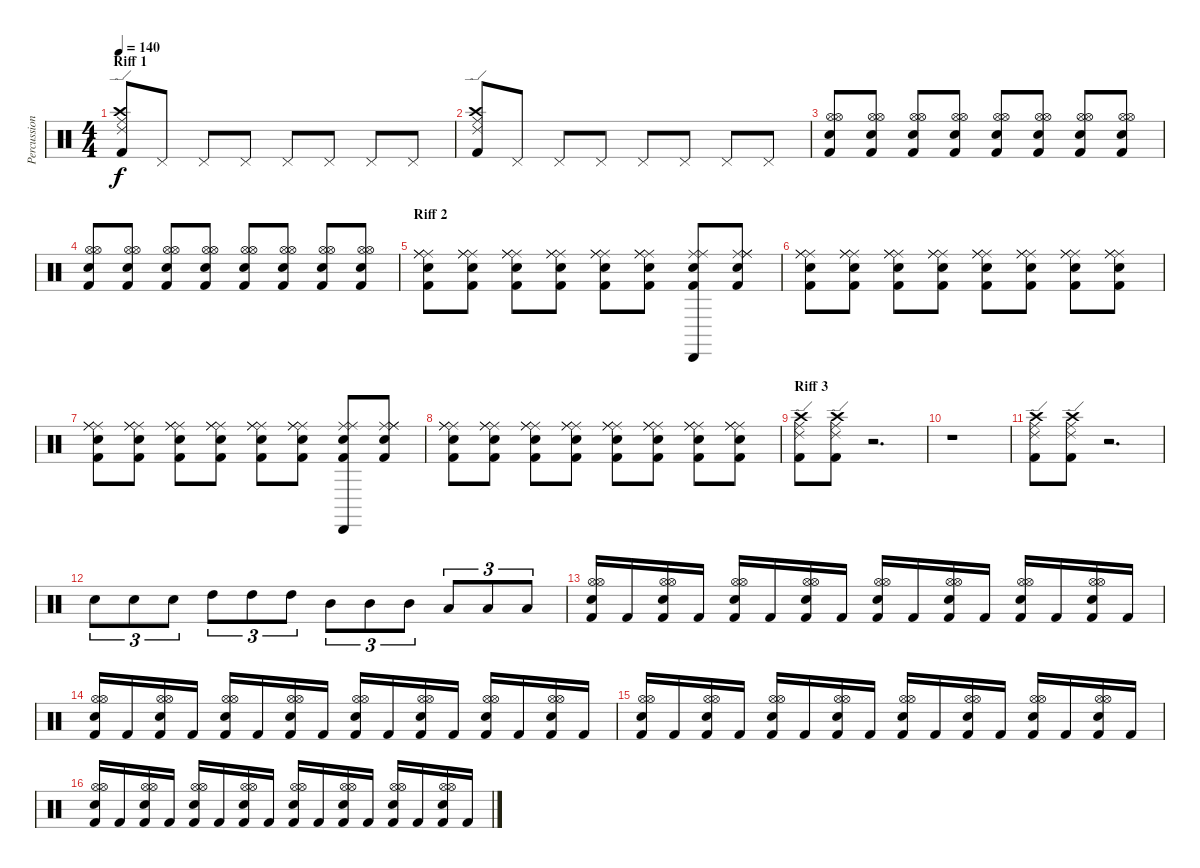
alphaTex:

\track ("Percussion" "Percussion") {instrument percussion}
\staff {score}
\articulation defaults
\ts (4 4)
\section ("" "Riff 1")
\tempo 140
\clef neutral
\ks c
("Ride (middle)" "Crash high (hit)" "Ride (edge) 2" "Kick (hit) 2").8{dy f} "Pedal Hi-Hat (hit)".8 "Pedal Hi-Hat (hit)".8 "Pedal Hi-Hat (hit)".8 "Pedal Hi-Hat (hit)".8 "Pedal Hi-Hat (hit)".8 "Pedal Hi-Hat (hit)".8 "Pedal Hi-Hat (hit)".8 |
("Ride (middle)" "Crash high (hit)" "Ride (edge) 2" "Kick (hit) 2").8 "Pedal Hi-Hat (hit)".8 "Pedal Hi-Hat (hit)".8 "Pedal Hi-Hat (hit)".8 "Pedal Hi-Hat (hit)".8 "Pedal Hi-Hat (hit)".8 "Pedal Hi-Hat (hit)".8 "Pedal Hi-Hat (hit)".8 |
("Hi-Hat (open)" "Hi-Hat (open)" "Electric Snare (hit)" "Kick (hit) 2").8 ("Hi-Hat (open)" "Hi-Hat (open)" "Electric Snare (hit)" "Kick (hit) 2").8 ("Hi-Hat (open)" "Hi-Hat (open)" "Electric Snare (hit)" "Kick (hit) 2").8 ("Hi-Hat (open)" "Hi-Hat (open)" "Electric Snare (hit)" "Kick (hit) 2").8 ("Hi-Hat (open)" "Hi-Hat (open)" "Electric Snare (hit)" "Kick (hit) 2").8 ("Hi-Hat (open)" "Hi-Hat (open)" "Electric Snare (hit)" "Kick (hit) 2").8 ("Hi-Hat (open)" "Hi-Hat (open)" "Electric Snare (hit)" "Kick (hit) 2").8 ("Hi-Hat (open)" "Hi-Hat (open)" "Electric Snare (hit)" "Kick (hit) 2").8 |
("Hi-Hat (open)" "Hi-Hat (open)" "Electric Snare (hit)" "Kick (hit) 2").8 ("Hi-Hat (open)" "Hi-Hat (open)" "Electric Snare (hit)" "Kick (hit) 2").8 ("Hi-Hat (open)" "Hi-Hat (open)" "Electric Snare (hit)" "Kick (hit) 2").8 ("Hi-Hat (open)" "Hi-Hat (open)" "Electric Snare (hit)" "Kick (hit) 2").8 ("Hi-Hat (open)" "Hi-Hat (open)" "Electric Snare (hit)" "Kick (hit) 2").8 ("Hi-Hat (open)" "Hi-Hat (open)" "Electric Snare (hit)" "Kick (hit) 2").8 ("Hi-Hat (open)" "Hi-Hat (open)" "Electric Snare (hit)" "Kick (hit) 2").8 ("Hi-Hat (open)" "Hi-Hat (open)" "Electric Snare (hit)" "Kick (hit) 2").8 |
\section ("" "Riff 2")
("Ride (middle)" "Ride (middle)" "Ride (middle)" "Electric Snare (hit)" "Kick (hit) 2").8 ("Ride (middle)" "Ride (middle)" "Ride (middle)" "Electric Snare (hit)" "Kick (hit) 2").8 ("Ride (middle)" "Ride (middle)" "Ride (middle)" "Electric Snare (hit)" "Kick (hit) 2").8 ("Ride (middle)" "Ride (middle)" "Ride (middle)" "Electric Snare (hit)" "Kick (hit) 2").8 ("Ride (middle)" "Ride (middle)" "Ride (middle)" "Electric Snare (hit)" "Kick (hit) 2").8 ("Ride (middle)" "Ride (middle)" "Ride (middle)" "Electric Snare (hit)" "Kick (hit) 2").8 ("Cabasa (hit)" "Ride (middle)" "Ride (middle)" "Electric Snare (hit)" "Kick (hit) 2").8 ("Ride (middle)" "Ride (middle)" "Ride (middle)" "Electric Snare (hit)" "Kick (hit) 2").8 |
("Ride (middle)" "Ride (middle)" "Ride (middle)" "Electric Snare (hit)" "Kick (hit) 2").8 ("Ride (middle)" "Ride (middle)" "Ride (middle)" "Electric Snare (hit)" "Kick (hit) 2").8 ("Ride (middle)" "Ride (middle)" "Ride (middle)" "Electric Snare (hit)" "Kick (hit) 2").8 ("Ride (middle)" "Ride (middle)" "Ride (middle)" "Electric Snare (hit)" "Kick (hit) 2").8 ("Ride (middle)" "Ride (middle)" "Ride (middle)" "Electric Snare (hit)" "Kick (hit) 2").8 ("Ride (middle)" "Ride (middle)" "Ride (middle)" "Electric Snare (hit)" "Kick (hit) 2").8 ("Ride (middle)" "Ride (middle)" "Ride (middle)" "Electric Snare (hit)" "Kick (hit) 2").8 ("Ride (middle)" "Ride (middle)" "Ride (middle)" "Electric Snare (hit)" "Kick (hit) 2").8 |
("Ride (middle)" "Ride (middle)" "Ride (middle)" "Electric Snare (hit)" "Kick (hit) 2").8 ("Ride (middle)" "Ride (middle)" "Ride (middle)" "Electric Snare (hit)" "Kick (hit) 2").8 ("Ride (middle)" "Ride (middle)" "Ride (middle)" "Electric Snare (hit)" "Kick (hit) 2").8 ("Ride (middle)" "Ride (middle)" "Ride (middle)" "Electric Snare (hit)" "Kick (hit) 2").8 ("Ride (middle)" "Ride (middle)" "Ride (middle)" "Electric Snare (hit)" "Kick (hit) 2").8 ("Ride (middle)" "Ride (middle)" "Ride (middle)" "Electric Snare (hit)" "Kick (hit) 2").8 ("Cabasa (hit)" "Ride (middle)" "Ride (middle)" "Electric Snare (hit)" "Kick (hit) 2").8 ("Ride (middle)" "Ride (middle)" "Ride (middle)" "Electric Snare (hit)" "Kick (hit) 2").8 |
("Ride (middle)" "Ride (middle)" "Ride (middle)" "Electric Snare (hit)" "Kick (hit) 2").8 ("Ride (middle)" "Ride (middle)" "Ride (middle)" "Electric Snare (hit)" "Kick (hit) 2").8 ("Ride (middle)" "Ride (middle)" "Ride (middle)" "Electric Snare (hit)" "Kick (hit) 2").8 ("Ride (middle)" "Ride (middle)" "Ride (middle)" "Electric Snare (hit)" "Kick (hit) 2").8 ("Ride (middle)" "Ride (middle)" "Ride (middle)" "Electric Snare (hit)" "Kick (hit) 2").8 ("Ride (middle)" "Ride (middle)" "Ride (middle)" "Electric Snare (hit)" "Kick (hit) 2").8 ("Ride (middle)" "Ride (middle)" "Ride (middle)" "Electric Snare (hit)" "Kick (hit) 2").8 ("Ride (middle)" "Ride (middle)" "Ride (middle)" "Electric Snare (hit)" "Kick (hit) 2").8 |
\section ("" "Riff 3")
("Ride (edge) 2" "Crash high (hit)" "Ride (middle)" "Kick (hit) 2").8 ("Ride (edge) 2" "Crash high (hit)" "Ride (middle)" "Kick (hit) 2").8 r.2{d} |
r.1 |
("Ride (edge) 2" "Crash high (hit)" "Ride (middle)" "Kick (hit) 2").8 ("Ride (edge) 2" "Crash high (hit)" "Ride (middle)" "Kick (hit) 2").8 r.2{d} |
"Electric Snare (hit)".8{tu (3 2)} "Electric Snare (hit)".8{tu (3 2)} "Electric Snare (hit)".8{tu (3 2)} "High Tom (hit)".8{tu (3 2)} "High Tom (hit)".8{tu (3 2)} "High Tom (hit)".8{tu (3 2)} "Mid Tom (hit)".8{tu (3 2)} "Mid Tom (hit)".8{tu (3 2)} "Mid Tom (hit)".8{tu (3 2)} "Low Tom (hit)".8{tu (3 2)} "Low Tom (hit)".8{tu (3 2)} "Low Tom (hit)".8{tu (3 2)} |
("Hi-Hat (open)" "Hi-Hat (open)" "Electric Snare (hit)" "Kick (hit) 2").16 "Kick (hit) 2".16 ("Hi-Hat (open)" "Hi-Hat (open)" "Electric Snare (hit)" "Kick (hit) 2").16 "Kick (hit) 2".16 ("Hi-Hat (open)" "Hi-Hat (open)" "Electric Snare (hit)" "Kick (hit) 2").16 "Kick (hit) 2".16 ("Hi-Hat (open)" "Hi-Hat (open)" "Electric Snare (hit)" "Kick (hit) 2").16 "Kick (hit) 2".16 ("Hi-Hat (open)" "Hi-Hat (open)" "Electric Snare (hit)" "Kick (hit) 2").16 "Kick (hit) 2".16 ("Hi-Hat (open)" "Hi-Hat (open)" "Electric Snare (hit)" "Kick (hit) 2").16 "Kick (hit) 2".16 ("Hi-Hat (open)" "Hi-Hat (open)" "Electric Snare (hit)" "Kick (hit) 2").16 "Kick (hit) 2".16 ("Hi-Hat (open)" "Hi-Hat (open)" "Electric Snare (hit)" "Kick (hit) 2").16 "Kick (hit) 2".16 |
("Hi-Hat (open)" "Hi-Hat (open)" "Electric Snare (hit)" "Kick (hit) 2").16 "Kick (hit) 2".16 ("Hi-Hat (open)" "Hi-Hat (open)" "Electric Snare (hit)" "Kick (hit) 2").16 "Kick (hit) 2".16 ("Hi-Hat (open)" "Hi-Hat (open)" "Electric Snare (hit)" "Kick (hit) 2").16 "Kick (hit) 2".16 ("Hi-Hat (open)" "Hi-Hat (open)" "Electric Snare (hit)" "Kick (hit) 2").16 "Kick (hit) 2".16 ("Hi-Hat (open)" "Hi-Hat (open)" "Electric Snare (hit)" "Kick (hit) 2").16 "Kick (hit) 2".16 ("Hi-Hat (open)" "Hi-Hat (open)" "Electric Snare (hit)" "Kick (hit) 2").16 "Kick (hit) 2".16 ("Hi-Hat (open)" "Hi-Hat (open)" "Electric Snare (hit)" "Kick (hit) 2").16 "Kick (hit) 2".16 ("Hi-Hat (open)" "Hi-Hat (open)" "Electric Snare (hit)" "Kick (hit) 2").16 "Kick (hit) 2".16 |
("Hi-Hat (open)" "Hi-Hat (open)" "Electric Snare (hit)" "Kick (hit) 2").16 "Kick (hit) 2".16 ("Hi-Hat (open)" "Hi-Hat (open)" "Electric Snare (hit)" "Kick (hit) 2").16 "Kick (hit) 2".16 ("Hi-Hat (open)" "Hi-Hat (open)" "Electric Snare (hit)" "Kick (hit) 2").16 "Kick (hit) 2".16 ("Hi-Hat (open)" "Hi-Hat (open)" "Electric Snare (hit)" "Kick (hit) 2").16 "Kick (hit) 2".16 ("Hi-Hat (open)" "Hi-Hat (open)" "Electric Snare (hit)" "Kick (hit) 2").16 "Kick (hit) 2".16 ("Hi-Hat (open)" "Hi-Hat (open)" "Electric Snare (hit)" "Kick (hit) 2").16 "Kick (hit) 2".16 ("Hi-Hat (open)" "Hi-Hat (open)" "Electric Snare (hit)" "Kick (hit) 2").16 "Kick (hit) 2".16 ("Hi-Hat (open)" "Hi-Hat (open)" "Electric Snare (hit)" "Kick (hit) 2").16 "Kick (hit) 2".16 |
("Hi-Hat (open)" "Hi-Hat (open)" "Electric Snare (hit)" "Kick (hit) 2").16 "Kick (hit) 2".16 ("Hi-Hat (open)" "Hi-Hat (open)" "Electric Snare (hit)" "Kick (hit) 2").16 "Kick (hit) 2".16 ("Hi-Hat (open)" "Hi-Hat (open)" "Electric Snare (hit)" "Kick (hit) 2").16 "Kick (hit) 2".16 ("Hi-Hat (open)" "Hi-Hat (open)" "Electric Snare (hit)" "Kick (hit) 2").16 "Kick (hit) 2".16 ("Hi-Hat (open)" "Hi-Hat (open)" "Electric Snare (hit)" "Kick (hit) 2").16 "Kick (hit) 2".16 ("Hi-Hat (open)" "Hi-Hat (open)" "Electric Snare (hit)" "Kick (hit) 2").16 "Kick (hit) 2".16 ("Hi-Hat (open)" "Hi-Hat (open)" "Electric Snare (hit)" "Kick (hit) 2").16 "Kick (hit) 2".16 ("Hi-Hat (open)" "Hi-Hat (open)" "Electric Snare (hit)" "Kick (hit) 2").16 "Kick (hit) 2".16
